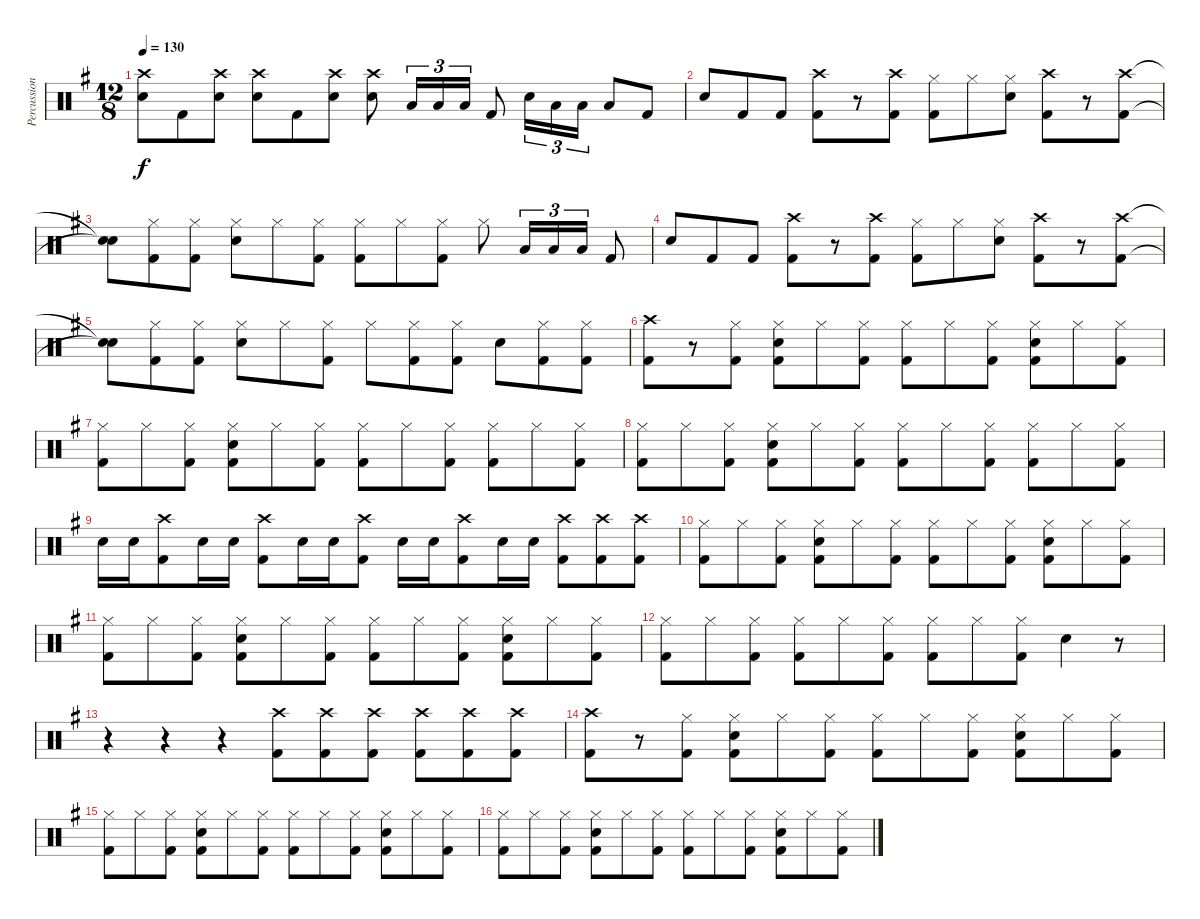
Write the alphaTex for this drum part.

\track ("Percussion" "Percussion") {instrument percussion}
\staff {score}
\articulation defaults
\ts (12 8)
\tempo 130
\clef neutral
\ks g
("Crash high (hit)" "Snare (hit) 2").8{dy f} "Kick (hit) 2".8 ("Crash high (hit)" "Snare (hit) 2").8 ("Crash high (hit)" "Snare (hit) 2").8 "Kick (hit) 2".8 ("Crash high (hit)" "Snare (hit) 2").8 ("Crash high (hit)" "Snare (hit) 2").8 "Low Tom (hit)".16{tu (3 2)} "Low Tom (hit)".16{tu (3 2)} "Low Tom (hit)".16{tu (3 2)} "Kick (hit) 2".8 "Snare (hit) 2".16{tu (3 2)} "Low Tom (hit)".16{tu (3 2)} "Low Tom (hit)".16{tu (3 2)} "Low Tom (hit)".8 "Kick (hit) 2".8 |
"Snare (hit) 2".8 "Kick (hit) 2".8 "Kick (hit) 2".8 ("Crash high (hit)" "Kick (hit) 2").8 r.8 ("Crash high (hit)" "Kick (hit) 2").8 ("Hi-Hat (closed)" "Kick (hit) 2").8 "Hi-Hat (closed)".8 ("Hi-Hat (closed)" "Snare (hit) 2").8 ("Crash high (hit)" "Kick (hit) 2").8 r.8 ("Crash high (hit)" "Kick (hit) 2").8 |
("Snare (hit)"{t} "Snare (hit)"{t}).8 ("Hi-Hat (closed)" "Kick (hit) 2").8 ("Hi-Hat (closed)" "Kick (hit) 2").8 ("Hi-Hat (closed)" "Snare (hit) 2").8 "Hi-Hat (closed)".8 ("Hi-Hat (closed)" "Kick (hit) 2").8 ("Hi-Hat (closed)" "Kick (hit) 2").8 "Hi-Hat (closed)".8 ("Hi-Hat (closed)" "Kick (hit) 2").8 "Hi-Hat (closed)".8 "Low Tom (hit)".16{tu (3 2)} "Low Tom (hit)".16{tu (3 2)} "Low Tom (hit)".16{tu (3 2)} "Kick (hit) 2".8 |
"Snare (hit) 2".8 "Kick (hit) 2".8 "Kick (hit) 2".8 ("Crash high (hit)" "Kick (hit) 2").8 r.8 ("Crash high (hit)" "Kick (hit) 2").8 ("Hi-Hat (closed)" "Kick (hit) 2").8 "Hi-Hat (closed)".8 ("Hi-Hat (closed)" "Snare (hit) 2").8 ("Crash high (hit)" "Kick (hit) 2").8 r.8 ("Crash high (hit)" "Kick (hit) 2").8 |
("Snare (hit)"{t} "Snare (hit)"{t}).8 ("Hi-Hat (closed)" "Kick (hit) 2").8 ("Hi-Hat (closed)" "Kick (hit) 2").8 ("Hi-Hat (closed)" "Snare (hit) 2").8 "Hi-Hat (closed)".8 ("Hi-Hat (closed)" "Kick (hit) 2").8 "Hi-Hat (closed)".8 ("Hi-Hat (closed)" "Kick (hit) 2").8 ("Hi-Hat (closed)" "Kick (hit) 2").8 "Snare (hit) 2".8 ("Hi-Hat (closed)" "Kick (hit) 2").8 ("Hi-Hat (closed)" "Kick (hit) 2").8 |
("Crash high (hit)" "Kick (hit) 2").8 r.8 ("Hi-Hat (closed)" "Kick (hit) 2").8 ("Hi-Hat (closed)" "Snare (hit) 2" "Kick (hit) 2").8 "Hi-Hat (closed)".8 ("Hi-Hat (closed)" "Kick (hit) 2").8 ("Hi-Hat (closed)" "Kick (hit) 2").8 "Hi-Hat (closed)".8 ("Hi-Hat (closed)" "Kick (hit) 2").8 ("Hi-Hat (closed)" "Snare (hit) 2" "Kick (hit) 2").8 "Hi-Hat (closed)".8 ("Hi-Hat (closed)" "Kick (hit) 2").8 |
("Hi-Hat (closed)" "Kick (hit) 2").8 "Hi-Hat (closed)".8 ("Hi-Hat (closed)" "Kick (hit) 2").8 ("Hi-Hat (closed)" "Snare (hit) 2" "Kick (hit) 2").8 "Hi-Hat (closed)".8 ("Hi-Hat (closed)" "Kick (hit) 2").8 ("Hi-Hat (closed)" "Kick (hit) 2").8 "Hi-Hat (closed)".8 ("Hi-Hat (closed)" "Kick (hit) 2").8 ("Hi-Hat (closed)" "Kick (hit) 2").8 "Hi-Hat (closed)".8 ("Hi-Hat (closed)" "Kick (hit) 2").8 |
("Hi-Hat (closed)" "Kick (hit) 2").8 "Hi-Hat (closed)".8 ("Hi-Hat (closed)" "Kick (hit) 2").8 ("Hi-Hat (closed)" "Snare (hit) 2" "Kick (hit) 2").8 "Hi-Hat (closed)".8 ("Hi-Hat (closed)" "Kick (hit) 2").8 ("Hi-Hat (closed)" "Kick (hit) 2").8 "Hi-Hat (closed)".8 ("Hi-Hat (closed)" "Kick (hit) 2").8 ("Hi-Hat (closed)" "Kick (hit) 2").8 "Hi-Hat (closed)".8 ("Hi-Hat (closed)" "Kick (hit) 2").8 |
"Snare (hit) 2".16 "Snare (hit) 2".16 ("Crash high (hit)" "Kick (hit) 2").8 "Snare (hit) 2".16 "Snare (hit) 2".16 ("Crash high (hit)" "Kick (hit) 2").8 "Snare (hit) 2".16 "Snare (hit) 2".16 ("Crash high (hit)" "Kick (hit) 2").8 "Snare (hit) 2".16 "Snare (hit) 2".16 ("Crash high (hit)" "Kick (hit) 2").8 "Snare (hit) 2".16 "Snare (hit) 2".16 ("Crash high (hit)" "Kick (hit) 2").8 ("Crash high (hit)" "Kick (hit) 2").8 ("Crash high (hit)" "Kick (hit) 2").8 |
("Hi-Hat (closed)" "Kick (hit) 2").8 "Hi-Hat (closed)".8 ("Hi-Hat (closed)" "Kick (hit) 2").8 ("Hi-Hat (closed)" "Snare (hit) 2" "Kick (hit) 2").8 "Hi-Hat (closed)".8 ("Hi-Hat (closed)" "Kick (hit) 2").8 ("Hi-Hat (closed)" "Kick (hit) 2").8 "Hi-Hat (closed)".8 ("Hi-Hat (closed)" "Kick (hit) 2").8 ("Hi-Hat (closed)" "Snare (hit) 2" "Kick (hit) 2").8 "Hi-Hat (closed)".8 ("Hi-Hat (closed)" "Kick (hit) 2").8 |
("Hi-Hat (closed)" "Kick (hit) 2").8 "Hi-Hat (closed)".8 ("Hi-Hat (closed)" "Kick (hit) 2").8 ("Hi-Hat (closed)" "Snare (hit) 2" "Kick (hit) 2").8 "Hi-Hat (closed)".8 ("Hi-Hat (closed)" "Kick (hit) 2").8 ("Hi-Hat (closed)" "Kick (hit) 2").8 "Hi-Hat (closed)".8 ("Hi-Hat (closed)" "Kick (hit) 2").8 ("Hi-Hat (closed)" "Snare (hit) 2" "Kick (hit) 2").8 "Hi-Hat (closed)".8 ("Hi-Hat (closed)" "Kick (hit) 2").8 |
("Hi-Hat (closed)" "Kick (hit) 2").8 "Hi-Hat (closed)".8 ("Hi-Hat (closed)" "Kick (hit) 2").8 ("Hi-Hat (closed)" "Kick (hit) 2").8 "Hi-Hat (closed)".8 ("Hi-Hat (closed)" "Kick (hit) 2").8 ("Hi-Hat (closed)" "Kick (hit) 2").8 "Hi-Hat (closed)".8 ("Hi-Hat (closed)" "Kick (hit) 2").8 "Snare (hit) 2".4 r.8 |
r.4 r.4 r.4 ("Crash high (hit)" "Kick (hit) 2").8 ("Crash high (hit)" "Kick (hit) 2").8 ("Crash high (hit)" "Kick (hit) 2").8 ("Crash high (hit)" "Kick (hit) 2").8 ("Crash high (hit)" "Kick (hit) 2").8 ("Crash high (hit)" "Kick (hit) 2").8 |
("Crash high (hit)" "Kick (hit) 2").8 r.8 ("Hi-Hat (closed)" "Kick (hit) 2").8 ("Hi-Hat (closed)" "Snare (hit) 2" "Kick (hit) 2").8 "Hi-Hat (closed)".8 ("Hi-Hat (closed)" "Kick (hit) 2").8 ("Hi-Hat (closed)" "Kick (hit) 2").8 "Hi-Hat (closed)".8 ("Hi-Hat (closed)" "Kick (hit) 2").8 ("Hi-Hat (closed)" "Snare (hit) 2" "Kick (hit) 2").8 "Hi-Hat (closed)".8 ("Hi-Hat (closed)" "Kick (hit) 2").8 |
("Hi-Hat (closed)" "Kick (hit) 2").8 "Hi-Hat (closed)".8 ("Hi-Hat (closed)" "Kick (hit) 2").8 ("Hi-Hat (closed)" "Snare (hit) 2" "Kick (hit) 2").8 "Hi-Hat (closed)".8 ("Hi-Hat (closed)" "Kick (hit) 2").8 ("Hi-Hat (closed)" "Kick (hit) 2").8 "Hi-Hat (closed)".8 ("Hi-Hat (closed)" "Kick (hit) 2").8 ("Hi-Hat (closed)" "Snare (hit) 2" "Kick (hit) 2").8 "Hi-Hat (closed)".8 ("Hi-Hat (closed)" "Kick (hit) 2").8 |
("Hi-Hat (closed)" "Kick (hit) 2").8 "Hi-Hat (closed)".8 ("Hi-Hat (closed)" "Kick (hit) 2").8 ("Hi-Hat (closed)" "Snare (hit) 2" "Kick (hit) 2").8 "Hi-Hat (closed)".8 ("Hi-Hat (closed)" "Kick (hit) 2").8 ("Hi-Hat (closed)" "Kick (hit) 2").8 "Hi-Hat (closed)".8 ("Hi-Hat (closed)" "Kick (hit) 2").8 ("Hi-Hat (closed)" "Snare (hit) 2" "Kick (hit) 2").8 "Hi-Hat (closed)".8 ("Hi-Hat (closed)" "Kick (hit) 2").8
